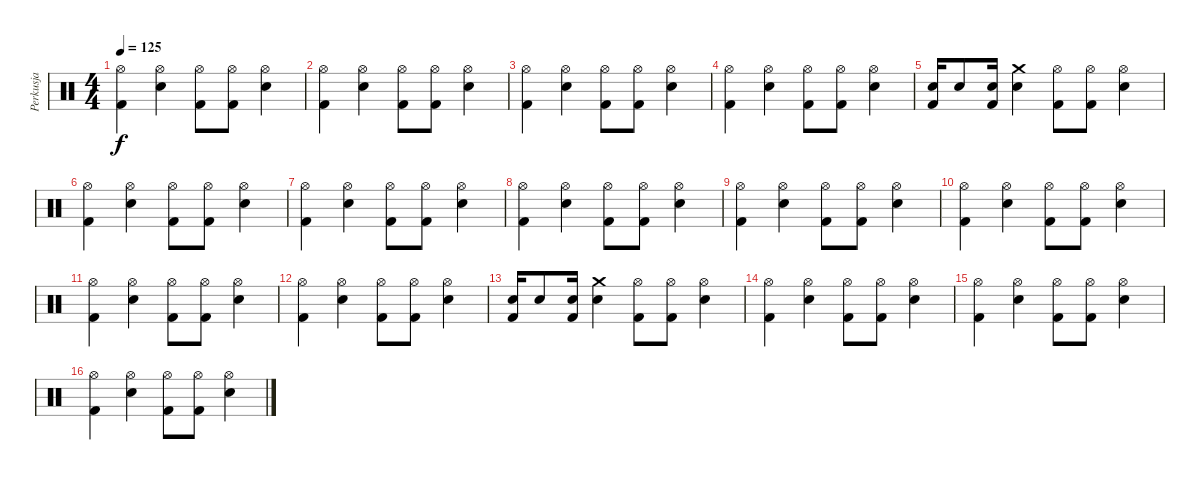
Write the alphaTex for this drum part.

\track ("Perkusja" "Perkusja") {instrument percussion}
\staff {score}
\articulation defaults
\ts (4 4)
\tempo 125
\clef neutral
\ks c
("Hi-Hat (open)" "Kick (hit) 2").4{dy f} ("Hi-Hat (open)" "Electric Snare (hit)").4 ("Hi-Hat (open)" "Kick (hit) 2").8 ("Hi-Hat (open)" "Kick (hit) 2").8 ("Hi-Hat (open)" "Electric Snare (hit)").4 |
("Hi-Hat (open)" "Kick (hit) 2").4 ("Hi-Hat (open)" "Electric Snare (hit)").4 ("Hi-Hat (open)" "Kick (hit) 2").8 ("Hi-Hat (open)" "Kick (hit) 2").8 ("Hi-Hat (open)" "Electric Snare (hit)").4 |
("Hi-Hat (open)" "Kick (hit) 2").4 ("Hi-Hat (open)" "Electric Snare (hit)").4 ("Hi-Hat (open)" "Kick (hit) 2").8 ("Hi-Hat (open)" "Kick (hit) 2").8 ("Hi-Hat (open)" "Electric Snare (hit)").4 |
("Hi-Hat (open)" "Kick (hit) 2").4 ("Hi-Hat (open)" "Electric Snare (hit)").4 ("Hi-Hat (open)" "Kick (hit) 2").8 ("Hi-Hat (open)" "Kick (hit) 2").8 ("Hi-Hat (open)" "Electric Snare (hit)").4 |
("Electric Snare (hit)" "Kick (hit) 2").16 "Electric Snare (hit)".8 ("Electric Snare (hit)" "Kick (hit) 2").16 ("Crash medium (hit)" "Electric Snare (hit)").4 ("Hi-Hat (open)" "Kick (hit) 2").8 ("Hi-Hat (open)" "Kick (hit) 2").8 ("Hi-Hat (open)" "Electric Snare (hit)").4 |
("Hi-Hat (open)" "Kick (hit) 2").4 ("Hi-Hat (open)" "Electric Snare (hit)").4 ("Hi-Hat (open)" "Kick (hit) 2").8 ("Hi-Hat (open)" "Kick (hit) 2").8 ("Hi-Hat (open)" "Electric Snare (hit)").4 |
("Hi-Hat (open)" "Kick (hit) 2").4 ("Hi-Hat (open)" "Electric Snare (hit)").4 ("Hi-Hat (open)" "Kick (hit) 2").8 ("Hi-Hat (open)" "Kick (hit) 2").8 ("Hi-Hat (open)" "Electric Snare (hit)").4 |
("Hi-Hat (open)" "Kick (hit) 2").4 ("Hi-Hat (open)" "Electric Snare (hit)").4 ("Hi-Hat (open)" "Kick (hit) 2").8 ("Hi-Hat (open)" "Kick (hit) 2").8 ("Hi-Hat (open)" "Electric Snare (hit)").4 |
("Hi-Hat (open)" "Kick (hit) 2").4 ("Hi-Hat (open)" "Electric Snare (hit)").4 ("Hi-Hat (open)" "Kick (hit) 2").8 ("Hi-Hat (open)" "Kick (hit) 2").8 ("Hi-Hat (open)" "Electric Snare (hit)").4 |
("Hi-Hat (open)" "Kick (hit) 2").4 ("Hi-Hat (open)" "Electric Snare (hit)").4 ("Hi-Hat (open)" "Kick (hit) 2").8 ("Hi-Hat (open)" "Kick (hit) 2").8 ("Hi-Hat (open)" "Electric Snare (hit)").4 |
("Hi-Hat (open)" "Kick (hit) 2").4 ("Hi-Hat (open)" "Electric Snare (hit)").4 ("Hi-Hat (open)" "Kick (hit) 2").8 ("Hi-Hat (open)" "Kick (hit) 2").8 ("Hi-Hat (open)" "Electric Snare (hit)").4 |
("Hi-Hat (open)" "Kick (hit) 2").4 ("Hi-Hat (open)" "Electric Snare (hit)").4 ("Hi-Hat (open)" "Kick (hit) 2").8 ("Hi-Hat (open)" "Kick (hit) 2").8 ("Hi-Hat (open)" "Electric Snare (hit)").4 |
("Electric Snare (hit)" "Kick (hit) 2").16 "Electric Snare (hit)".8 ("Electric Snare (hit)" "Kick (hit) 2").16 ("Crash medium (hit)" "Electric Snare (hit)").4 ("Hi-Hat (open)" "Kick (hit) 2").8 ("Hi-Hat (open)" "Kick (hit) 2").8 ("Hi-Hat (open)" "Electric Snare (hit)").4 |
("Hi-Hat (open)" "Kick (hit) 2").4 ("Hi-Hat (open)" "Electric Snare (hit)").4 ("Hi-Hat (open)" "Kick (hit) 2").8 ("Hi-Hat (open)" "Kick (hit) 2").8 ("Hi-Hat (open)" "Electric Snare (hit)").4 |
("Hi-Hat (open)" "Kick (hit) 2").4 ("Hi-Hat (open)" "Electric Snare (hit)").4 ("Hi-Hat (open)" "Kick (hit) 2").8 ("Hi-Hat (open)" "Kick (hit) 2").8 ("Hi-Hat (open)" "Electric Snare (hit)").4 |
("Hi-Hat (open)" "Kick (hit) 2").4 ("Hi-Hat (open)" "Electric Snare (hit)").4 ("Hi-Hat (open)" "Kick (hit) 2").8 ("Hi-Hat (open)" "Kick (hit) 2").8 ("Hi-Hat (open)" "Electric Snare (hit)").4
